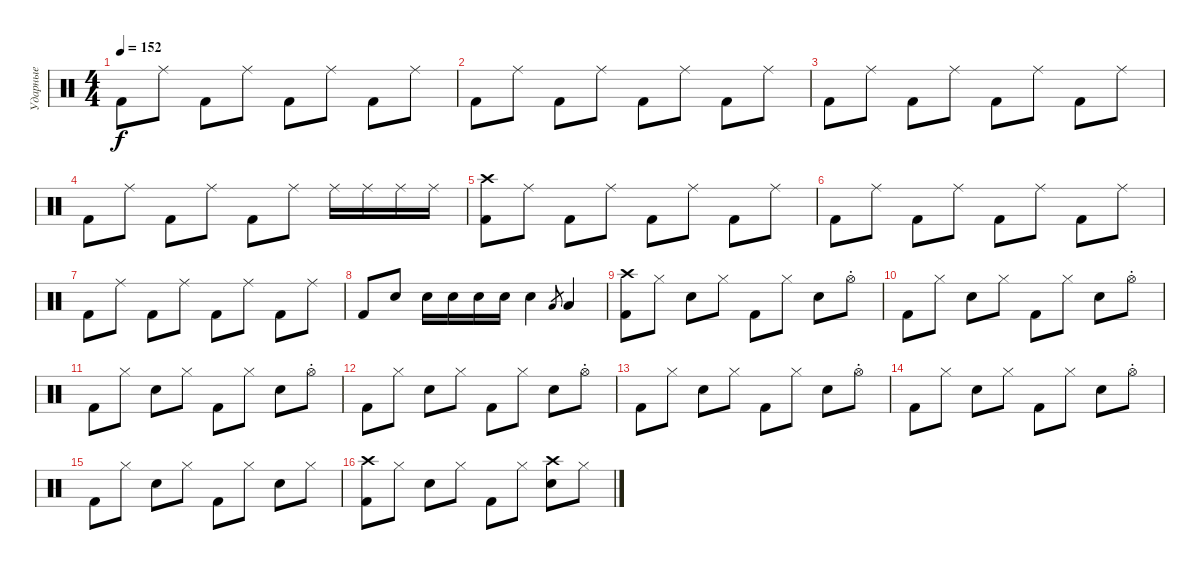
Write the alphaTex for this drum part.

\track ("Ударные" "Ударные") {instrument percussion}
\staff {score}
\articulation defaults
\ts (4 4)
\tempo 152
\clef neutral
\ks c "Kick (hit) 2".8{dy f} "Ride (middle)".8 "Kick (hit) 2".8 "Ride (middle)".8 "Kick (hit) 2".8 "Ride (middle)".8 "Kick (hit) 2".8 "Ride (middle)".8
|
"Kick (hit) 2".8 "Ride (middle)".8 "Kick (hit) 2".8 "Ride (middle)".8 "Kick (hit) 2".8 "Ride (middle)".8 "Kick (hit) 2".8 "Ride (middle)".8 |
"Kick (hit) 2".8 "Ride (middle)".8 "Kick (hit) 2".8 "Ride (middle)".8 "Kick (hit) 2".8 "Ride (middle)".8 "Kick (hit) 2".8 "Ride (middle)".8 |
"Kick (hit) 2".8 "Ride (middle)".8 "Kick (hit) 2".8 "Ride (middle)".8 "Kick (hit) 2".8 "Ride (middle)".8 "Ride (middle)".16 "Ride (middle)".16 "Ride (middle)".16 "Ride (middle)".16 |
("Crash high (hit)" "Kick (hit) 2").8 "Ride (middle)".8 "Kick (hit) 2".8 "Ride (middle)".8 "Kick (hit) 2".8 "Ride (middle)".8 "Kick (hit) 2".8 "Ride (middle)".8 |
"Kick (hit) 2".8 "Ride (middle)".8 "Kick (hit) 2".8 "Ride (middle)".8 "Kick (hit) 2".8 "Ride (middle)".8 "Kick (hit) 2".8 "Ride (middle)".8 |
"Kick (hit) 2".8 "Ride (middle)".8 "Kick (hit) 2".8 "Ride (middle)".8 "Kick (hit) 2".8 "Ride (middle)".8 "Kick (hit) 2".8 "Ride (middle)".8 |
"Kick (hit) 2".8 "Electric Snare (hit)".8 "Electric Snare (hit)".16 "Electric Snare (hit)".16 "Electric Snare (hit)".16 "Electric Snare (hit)".16 "Electric Snare (hit)".4 "Low Floor Tom (hit)".8{gr} "Low Floor Tom (hit)".4 |
("Crash high (hit)" "Kick (hit) 2").8 "Hi-Hat (closed)".8 "Electric Snare (hit)".8 "Hi-Hat (closed)".8 "Kick (hit) 2".8 "Hi-Hat (closed)".8 "Electric Snare (hit)".8 "Hi-Hat (open)"{st}.8 |
"Kick (hit) 2".8 "Hi-Hat (closed)".8 "Electric Snare (hit)".8 "Hi-Hat (closed)".8 "Kick (hit) 2".8 "Hi-Hat (closed)".8 "Electric Snare (hit)".8 "Hi-Hat (open)"{st}.8 |
"Kick (hit) 2".8 "Hi-Hat (closed)".8 "Electric Snare (hit)".8 "Hi-Hat (closed)".8 "Kick (hit) 2".8 "Hi-Hat (closed)".8 "Electric Snare (hit)".8 "Hi-Hat (open)"{st}.8 |
"Kick (hit) 2".8 "Hi-Hat (closed)".8 "Electric Snare (hit)".8 "Hi-Hat (closed)".8 "Kick (hit) 2".8 "Hi-Hat (closed)".8 "Electric Snare (hit)".8 "Hi-Hat (open)"{st}.8 |
"Kick (hit) 2".8 "Hi-Hat (closed)".8 "Electric Snare (hit)".8 "Hi-Hat (closed)".8 "Kick (hit) 2".8 "Hi-Hat (closed)".8 "Electric Snare (hit)".8 "Hi-Hat (open)"{st}.8 |
"Kick (hit) 2".8 "Hi-Hat (closed)".8 "Electric Snare (hit)".8 "Hi-Hat (closed)".8 "Kick (hit) 2".8 "Hi-Hat (closed)".8 "Electric Snare (hit)".8 "Hi-Hat (open)"{st}.8 |
"Kick (hit) 2".8 "Hi-Hat (closed)".8 "Electric Snare (hit)".8 "Hi-Hat (closed)".8 "Kick (hit) 2".8 "Hi-Hat (closed)".8 "Electric Snare (hit)".8 "Hi-Hat (closed)".8 |
("Crash high (hit)" "Kick (hit) 2").8 "Hi-Hat (closed)".8 "Electric Snare (hit)".8 "Hi-Hat (closed)".8 "Kick (hit) 2".8 "Hi-Hat (closed)".8 ("Crash high (hit)" "Electric Snare (hit)").8 "Hi-Hat (closed)".8
